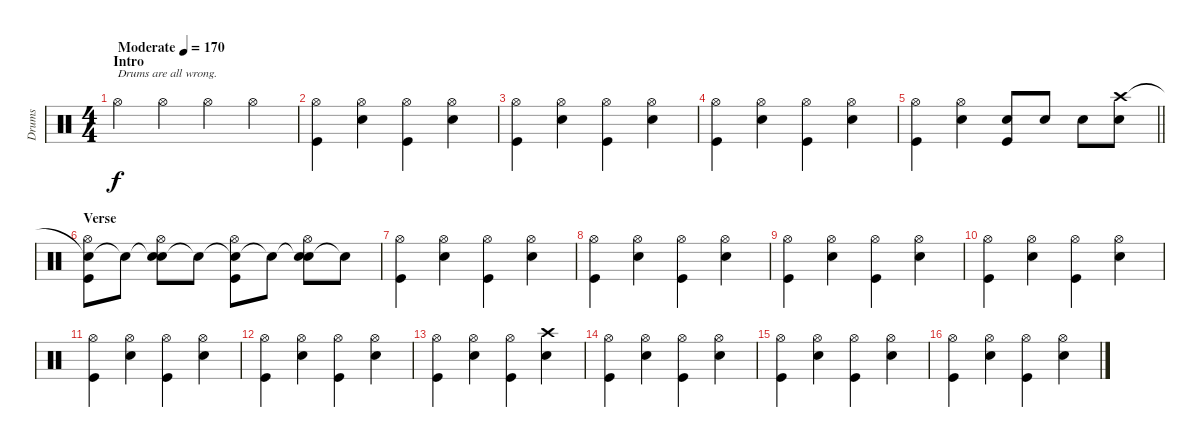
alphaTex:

\track ("Drums" "Drums") {instrument percussion}
\staff {score}
\articulation defaults
\ts (4 4)
\section ("" "Intro")
\tempo (170 "Moderate")
\clef neutral
\ks c "Hi-Hat (open)".4{txt "Drums are all wrong." dy f} "Hi-Hat (open)".4 "Hi-Hat (open)".4 "Hi-Hat (open)".4
|
("Hi-Hat (open)" "Kick (hit)").4 ("Hi-Hat (open)" "Snare (hit) 2").4 ("Hi-Hat (open)" "Kick (hit)").4 ("Hi-Hat (open)" "Snare (hit) 2").4 |
("Hi-Hat (open)" "Kick (hit)").4 ("Hi-Hat (open)" "Snare (hit) 2").4 ("Hi-Hat (open)" "Kick (hit)").4 ("Hi-Hat (open)" "Snare (hit) 2").4 |
("Hi-Hat (open)" "Kick (hit)").4 ("Hi-Hat (open)" "Snare (hit) 2").4 ("Hi-Hat (open)" "Kick (hit)").4 ("Hi-Hat (open)" "Snare (hit) 2").4 |
\barLineRight lightlight
("Hi-Hat (open)" "Kick (hit)").4 ("Hi-Hat (open)" "Snare (hit) 2").4 ("Snare (hit) 2" "Kick (hit)").8 "Snare (hit) 2".8 "Snare (hit) 2".8 ("Crash high (hit)" "Snare (hit) 2").8 |
\section ("" "Verse")
("Snare (hit)"{t} "Hi-Hat (open)" "Kick (hit)").8 "Snare (hit)"{t}.8 ("Snare (hit)"{t} "Hi-Hat (open)" "Snare (hit) 2").8 "Snare (hit)"{t}.8 ("Snare (hit)"{t} "Hi-Hat (open)" "Kick (hit)").8 "Snare (hit)"{t}.8 ("Snare (hit)"{t} "Hi-Hat (open)" "Snare (hit) 2").8 "Snare (hit)"{t}.8 |
("Hi-Hat (open)" "Kick (hit)").4 ("Hi-Hat (open)" "Snare (hit) 2").4 ("Hi-Hat (open)" "Kick (hit)").4 ("Hi-Hat (open)" "Snare (hit) 2").4 |
("Hi-Hat (open)" "Kick (hit)").4 ("Hi-Hat (open)" "Snare (hit) 2").4 ("Hi-Hat (open)" "Kick (hit)").4 ("Hi-Hat (open)" "Snare (hit) 2").4 |
("Hi-Hat (open)" "Kick (hit)").4 ("Hi-Hat (open)" "Snare (hit) 2").4 ("Hi-Hat (open)" "Kick (hit)").4 ("Hi-Hat (open)" "Snare (hit) 2").4 |
("Hi-Hat (open)" "Kick (hit)").4 ("Hi-Hat (open)" "Snare (hit) 2").4 ("Hi-Hat (open)" "Kick (hit)").4 ("Hi-Hat (open)" "Snare (hit) 2").4 |
("Hi-Hat (open)" "Kick (hit)").4 ("Hi-Hat (open)" "Snare (hit) 2").4 ("Hi-Hat (open)" "Kick (hit)").4 ("Hi-Hat (open)" "Snare (hit) 2").4 |
("Hi-Hat (open)" "Kick (hit)").4 ("Hi-Hat (open)" "Snare (hit) 2").4 ("Hi-Hat (open)" "Kick (hit)").4 ("Hi-Hat (open)" "Snare (hit) 2").4 |
("Hi-Hat (open)" "Kick (hit)").4 ("Hi-Hat (open)" "Snare (hit) 2").4 ("Hi-Hat (open)" "Kick (hit)").4 ("Crash high (hit)" "Snare (hit) 2").4 |
("Hi-Hat (open)" "Kick (hit)").4 ("Hi-Hat (open)" "Snare (hit) 2").4 ("Hi-Hat (open)" "Kick (hit)").4 ("Hi-Hat (open)" "Snare (hit) 2").4 |
("Hi-Hat (open)" "Kick (hit)").4 ("Hi-Hat (open)" "Snare (hit) 2").4 ("Hi-Hat (open)" "Kick (hit)").4 ("Hi-Hat (open)" "Snare (hit) 2").4 |
("Hi-Hat (open)" "Kick (hit)").4 ("Hi-Hat (open)" "Snare (hit) 2").4 ("Hi-Hat (open)" "Kick (hit)").4 ("Hi-Hat (open)" "Snare (hit) 2").4
